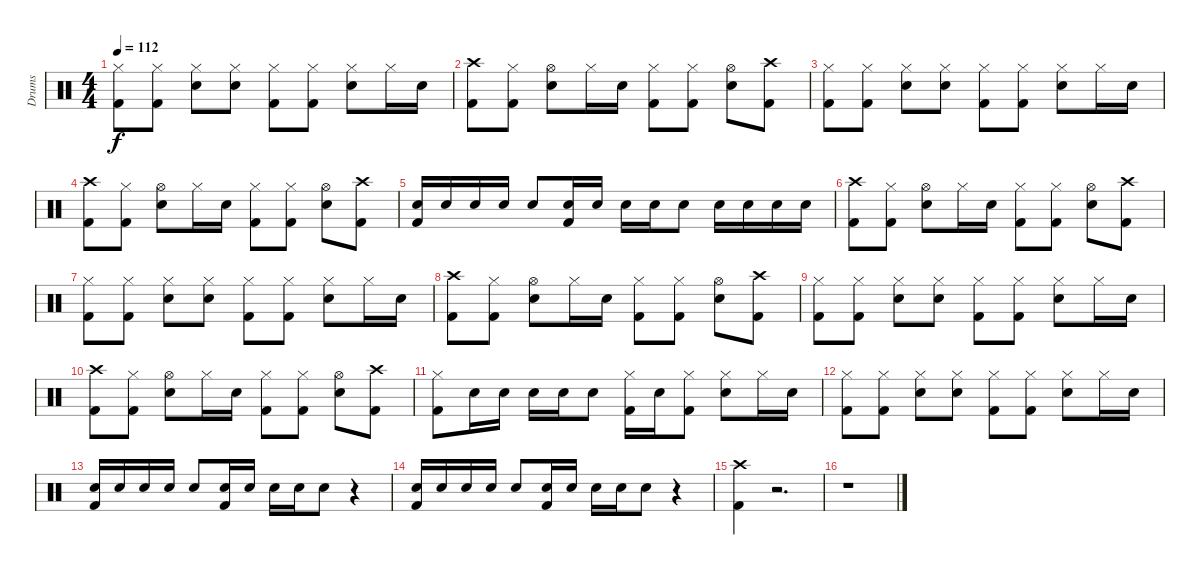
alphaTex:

\track ("Drums" "Drums") {instrument percussion}
\staff {score}
\articulation defaults
\ts (4 4)
\tempo 112
\clef neutral
\ks c
("Hi-Hat (closed)" "Kick (hit) 2").8{dy f} ("Hi-Hat (closed)" "Kick (hit) 2").8 ("Hi-Hat (closed)" "Snare (hit) 2").8 ("Hi-Hat (closed)" "Snare (hit) 2").8 ("Hi-Hat (closed)" "Kick (hit) 2").8 ("Hi-Hat (closed)" "Kick (hit) 2").8 ("Hi-Hat (closed)" "Snare (hit) 2").8 "Hi-Hat (closed)".16 "Snare (hit) 2".16 |
("Crash high (hit)" "Kick (hit) 2").8 ("Hi-Hat (closed)" "Kick (hit) 2").8 ("Hi-Hat (open)" "Snare (hit) 2").8 "Hi-Hat (closed)".16 "Snare (hit) 2".16 ("Hi-Hat (closed)" "Kick (hit) 2").8 ("Hi-Hat (closed)" "Kick (hit) 2").8 ("Hi-Hat (open)" "Snare (hit) 2").8 ("Crash high (hit)" "Kick (hit) 2").8 |
("Hi-Hat (closed)" "Kick (hit) 2").8 ("Hi-Hat (closed)" "Kick (hit) 2").8 ("Hi-Hat (closed)" "Snare (hit) 2").8 ("Hi-Hat (closed)" "Snare (hit) 2").8 ("Hi-Hat (closed)" "Kick (hit) 2").8 ("Hi-Hat (closed)" "Kick (hit) 2").8 ("Hi-Hat (closed)" "Snare (hit) 2").8 "Hi-Hat (closed)".16 "Snare (hit) 2".16 |
("Crash high (hit)" "Kick (hit) 2").8 ("Hi-Hat (closed)" "Kick (hit) 2").8 ("Hi-Hat (open)" "Snare (hit) 2").8 "Hi-Hat (closed)".16 "Snare (hit) 2".16 ("Hi-Hat (closed)" "Kick (hit) 2").8 ("Hi-Hat (closed)" "Kick (hit) 2").8 ("Hi-Hat (open)" "Snare (hit) 2").8 ("Crash high (hit)" "Kick (hit) 2").8 |
("Snare (hit) 2" "Kick (hit) 2").16 "Snare (hit) 2".16 "Snare (hit) 2".16 "Snare (hit) 2".16 "Snare (hit) 2".8 ("Snare (hit) 2" "Kick (hit) 2").16 "Snare (hit) 2".16 "Snare (hit) 2".16 "Snare (hit) 2".16 "Snare (hit) 2".8 "Snare (hit) 2".16 "Snare (hit) 2".16 "Snare (hit) 2".16 "Snare (hit) 2".16 |
("Crash high (hit)" "Kick (hit) 2").8 ("Hi-Hat (closed)" "Kick (hit) 2").8 ("Hi-Hat (open)" "Snare (hit) 2").8 "Hi-Hat (closed)".16 "Snare (hit) 2".16 ("Hi-Hat (closed)" "Kick (hit) 2").8 ("Hi-Hat (closed)" "Kick (hit) 2").8 ("Hi-Hat (open)" "Snare (hit) 2").8 ("Crash high (hit)" "Kick (hit) 2").8 |
("Hi-Hat (closed)" "Kick (hit) 2").8 ("Hi-Hat (closed)" "Kick (hit) 2").8 ("Hi-Hat (closed)" "Snare (hit) 2").8 ("Hi-Hat (closed)" "Snare (hit) 2").8 ("Hi-Hat (closed)" "Kick (hit) 2").8 ("Hi-Hat (closed)" "Kick (hit) 2").8 ("Hi-Hat (closed)" "Snare (hit) 2").8 "Hi-Hat (closed)".16 "Snare (hit) 2".16 |
("Crash high (hit)" "Kick (hit) 2").8 ("Hi-Hat (closed)" "Kick (hit) 2").8 ("Hi-Hat (open)" "Snare (hit) 2").8 "Hi-Hat (closed)".16 "Snare (hit) 2".16 ("Hi-Hat (closed)" "Kick (hit) 2").8 ("Hi-Hat (closed)" "Kick (hit) 2").8 ("Hi-Hat (open)" "Snare (hit) 2").8 ("Crash high (hit)" "Kick (hit) 2").8 |
("Hi-Hat (closed)" "Kick (hit) 2").8 ("Hi-Hat (closed)" "Kick (hit) 2").8 ("Hi-Hat (closed)" "Snare (hit) 2").8 ("Hi-Hat (closed)" "Snare (hit) 2").8 ("Hi-Hat (closed)" "Kick (hit) 2").8 ("Hi-Hat (closed)" "Kick (hit) 2").8 ("Hi-Hat (closed)" "Snare (hit) 2").8 "Hi-Hat (closed)".16 "Snare (hit) 2".16 |
("Crash high (hit)" "Kick (hit) 2").8 ("Hi-Hat (closed)" "Kick (hit) 2").8 ("Hi-Hat (open)" "Snare (hit) 2").8 "Hi-Hat (closed)".16 "Snare (hit) 2".16 ("Hi-Hat (closed)" "Kick (hit) 2").8 ("Hi-Hat (closed)" "Kick (hit) 2").8 ("Hi-Hat (open)" "Snare (hit) 2").8 ("Crash high (hit)" "Kick (hit) 2").8 |
("Hi-Hat (closed)" "Kick (hit) 2").8 "Snare (hit) 2".16 "Snare (hit) 2".16 "Snare (hit) 2".16 "Snare (hit) 2".16 "Snare (hit) 2".8 ("Hi-Hat (closed)" "Kick (hit) 2").16 "Snare (hit) 2".16 ("Hi-Hat (closed)" "Kick (hit) 2").8 ("Hi-Hat (closed)" "Snare (hit) 2").8 "Hi-Hat (closed)".16 "Snare (hit) 2".16 |
("Hi-Hat (closed)" "Kick (hit) 2").8 ("Hi-Hat (closed)" "Kick (hit) 2").8 ("Hi-Hat (closed)" "Snare (hit) 2").8 ("Hi-Hat (closed)" "Snare (hit) 2").8 ("Hi-Hat (closed)" "Kick (hit) 2").8 ("Hi-Hat (closed)" "Kick (hit) 2").8 ("Hi-Hat (closed)" "Snare (hit) 2").8 "Hi-Hat (closed)".16 "Snare (hit) 2".16 |
("Snare (hit) 2" "Kick (hit) 2").16 "Snare (hit) 2".16 "Snare (hit) 2".16 "Snare (hit) 2".16 "Snare (hit) 2".8 ("Snare (hit) 2" "Kick (hit) 2").16 "Snare (hit) 2".16 "Snare (hit) 2".16 "Snare (hit) 2".16 "Snare (hit) 2".8 r.4 |
("Snare (hit) 2" "Kick (hit) 2").16 "Snare (hit) 2".16 "Snare (hit) 2".16 "Snare (hit) 2".16 "Snare (hit) 2".8 ("Snare (hit) 2" "Kick (hit) 2").16 "Snare (hit) 2".16 "Snare (hit) 2".16 "Snare (hit) 2".16 "Snare (hit) 2".8 r.4 |
("Crash high (hit)" "Kick (hit) 2").4 r.2{d} |
r.1
